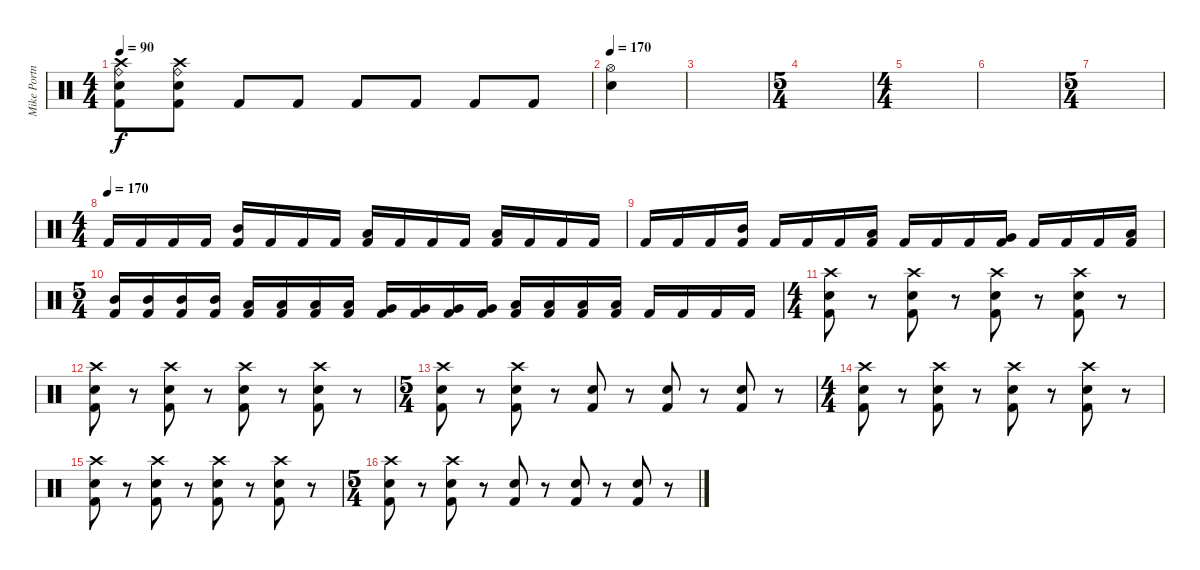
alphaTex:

\track ("Mike Portnoy" "Mike Portn") {instrument percussion}
\staff {score}
\articulation defaults
\ts (4 4)
\tempo 90
\clef neutral
\ks c
("Ride (bell)" "Crash high (hit)" "Electric Snare (hit)" "Kick (hit) 2").8{dy f} ("Ride (bell)" "Crash high (hit)" "Electric Snare (hit)" "Kick (hit) 2").8 "Kick (hit) 2".8 "Kick (hit) 2".8 "Kick (hit) 2".8 "Kick (hit) 2".8 "Kick (hit) 2".8 "Kick (hit) 2".8 |
\tempo 170
("Hi-Hat (open)" "Electric Snare (hit)").4 |
|
\ts (5 4)
|
\ts (4 4)
|
|
\ts (5 4)
|
\ts (4 4)
\tempo (170)
"Kick (hit) 2".16 "Kick (hit) 2".16 "Kick (hit) 2".16 "Kick (hit) 2".16 ("Mid Tom (hit)" "Kick (hit) 2").16 "Kick (hit) 2".16 "Kick (hit) 2".16 "Kick (hit) 2".16 ("Low Tom (hit)" "Kick (hit) 2").16 "Kick (hit) 2".16 "Kick (hit) 2".16 "Kick (hit) 2".16 ("Low Floor Tom (hit)" "Kick (hit) 2").16 "Kick (hit) 2".16 "Kick (hit) 2".16 "Kick (hit) 2".16 |
"Kick (hit) 2".16 "Kick (hit) 2".16 "Kick (hit) 2".16 ("Mid Tom (hit)" "Kick (hit) 2").16 "Kick (hit) 2".16 "Kick (hit) 2".16 "Kick (hit) 2".16 ("Low Tom (hit)" "Kick (hit) 2").16 "Kick (hit) 2".16 "Kick (hit) 2".16 "Kick (hit) 2".16 ("Very Low Tom (hit)" "Kick (hit) 2").16 "Kick (hit) 2".16 "Kick (hit) 2".16 "Kick (hit) 2".16 ("Low Floor Tom (hit)" "Kick (hit) 2").16 |
\ts (5 4)
("Mid Tom (hit)" "Kick (hit) 2").16 ("Mid Tom (hit)" "Kick (hit) 2").16 ("Mid Tom (hit)" "Kick (hit) 2").16 ("Mid Tom (hit)" "Kick (hit) 2").16 ("Low Tom (hit)" "Kick (hit) 2").16 ("Low Tom (hit)" "Kick (hit) 2").16 ("Low Tom (hit)" "Kick (hit) 2").16 ("Low Tom (hit)" "Kick (hit) 2").16 ("Very Low Tom (hit)" "Kick (hit) 2").16 ("Very Low Tom (hit)" "Kick (hit) 2").16 ("Very Low Tom (hit)" "Kick (hit) 2").16 ("Very Low Tom (hit)" "Kick (hit) 2").16 ("Low Floor Tom (hit)" "Kick (hit) 2").16 ("Low Floor Tom (hit)" "Kick (hit) 2").16 ("Low Floor Tom (hit)" "Kick (hit) 2").16 ("Low Floor Tom (hit)" "Kick (hit) 2").16 "Kick (hit) 2".16 "Kick (hit) 2".16 "Kick (hit) 2".16 "Kick (hit) 2".16 |
\ts (4 4)
("Crash high (hit)" "Electric Snare (hit)" "Kick (hit) 2").8 r.8 ("Crash high (hit)" "Electric Snare (hit)" "Kick (hit) 2").8 r.8 ("Crash high (hit)" "Electric Snare (hit)" "Kick (hit) 2").8 r.8 ("Crash high (hit)" "Electric Snare (hit)" "Kick (hit) 2").8 r.8 |
("Crash high (hit)" "Electric Snare (hit)" "Kick (hit) 2").8 r.8 ("Crash high (hit)" "Electric Snare (hit)" "Kick (hit) 2").8 r.8 ("Crash high (hit)" "Electric Snare (hit)" "Kick (hit) 2").8 r.8 ("Crash high (hit)" "Electric Snare (hit)" "Kick (hit) 2").8 r.8 |
\ts (5 4)
("Crash high (hit)" "Electric Snare (hit)" "Kick (hit) 2").8 r.8 ("Crash high (hit)" "Electric Snare (hit)" "Kick (hit) 2").8 r.8 ("Electric Snare (hit)" "Kick (hit) 2").8 r.8 ("Electric Snare (hit)" "Kick (hit) 2").8 r.8 ("Electric Snare (hit)" "Kick (hit) 2").8 r.8 |
\ts (4 4)
("Crash high (hit)" "Electric Snare (hit)" "Kick (hit) 2").8 r.8 ("Crash high (hit)" "Electric Snare (hit)" "Kick (hit) 2").8 r.8 ("Crash high (hit)" "Electric Snare (hit)" "Kick (hit) 2").8 r.8 ("Crash high (hit)" "Electric Snare (hit)" "Kick (hit) 2").8 r.8 |
("Crash high (hit)" "Electric Snare (hit)" "Kick (hit) 2").8 r.8 ("Crash high (hit)" "Electric Snare (hit)" "Kick (hit) 2").8 r.8 ("Crash high (hit)" "Electric Snare (hit)" "Kick (hit) 2").8 r.8 ("Crash high (hit)" "Electric Snare (hit)" "Kick (hit) 2").8 r.8 |
\ts (5 4)
("Crash high (hit)" "Electric Snare (hit)" "Kick (hit) 2").8 r.8 ("Crash high (hit)" "Electric Snare (hit)" "Kick (hit) 2").8 r.8 ("Electric Snare (hit)" "Kick (hit) 2").8 r.8 ("Electric Snare (hit)" "Kick (hit) 2").8 r.8 ("Electric Snare (hit)" "Kick (hit) 2").8 r.8
